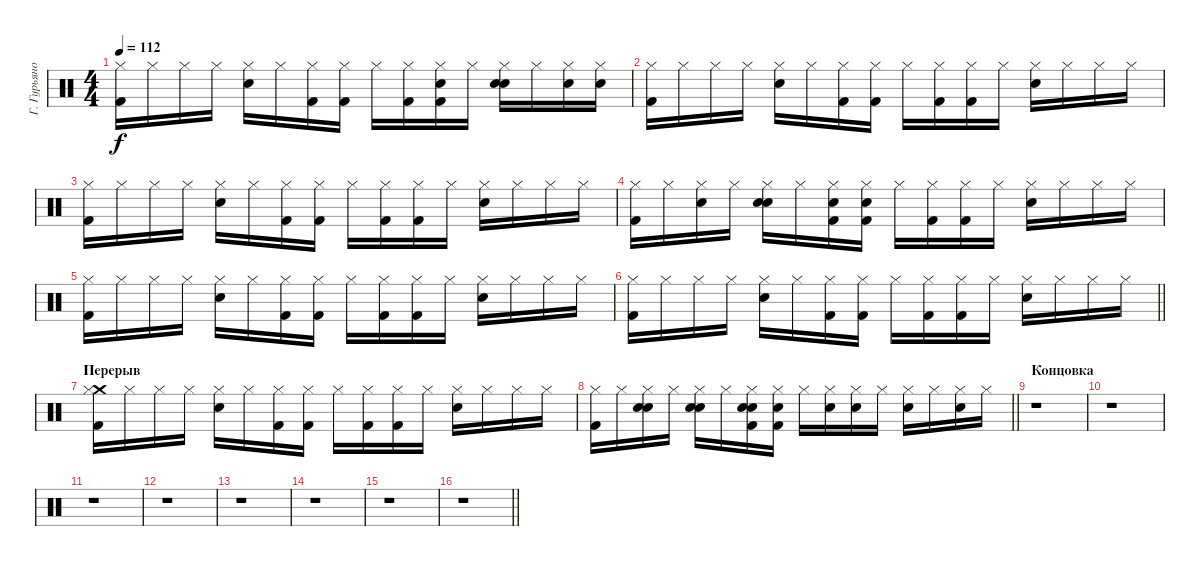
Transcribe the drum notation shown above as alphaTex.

\track ("Г. Гурьянов" "Г. Гурьяно") {instrument percussion}
\staff {score}
\articulation defaults
\ts (4 4)
\tempo 112
\clef neutral
\ks c
("Kick (hit) 2" "Hi-Hat (closed)").16{dy f} "Hi-Hat (closed)".16 "Hi-Hat (closed)".16 "Hi-Hat (closed)".16 ("Snare (hit) 2" "Hi-Hat (closed)").16 "Hi-Hat (closed)".16 ("Kick (hit) 2" "Hi-Hat (closed)").16 ("Kick (hit) 2" "Hi-Hat (closed)").16 "Hi-Hat (closed)".16 ("Kick (hit) 2" "Hi-Hat (closed)").16 ("Kick (hit) 2" "Hand Clap (hit)" "Hi-Hat (closed)").16 "Hi-Hat (closed)".16 ("Snare (hit) 2" "Hand Clap (hit)" "Hi-Hat (closed)").16 "Hi-Hat (closed)".16 ("Hand Clap (hit)" "Hi-Hat (closed)").16 ("Hand Clap (hit)" "Hi-Hat (closed)").16 |
("Kick (hit) 2" "Hi-Hat (closed)").16 "Hi-Hat (closed)".16 "Hi-Hat (closed)".16 "Hi-Hat (closed)".16 ("Snare (hit) 2" "Hi-Hat (closed)").16 "Hi-Hat (closed)".16 ("Kick (hit) 2" "Hi-Hat (closed)").16 ("Kick (hit) 2" "Hi-Hat (closed)").16 "Hi-Hat (closed)".16 ("Kick (hit) 2" "Hi-Hat (closed)").16 ("Kick (hit) 2" "Hi-Hat (closed)").16 "Hi-Hat (closed)".16 ("Snare (hit) 2" "Hi-Hat (closed)").16 "Hi-Hat (closed)".16 "Hi-Hat (closed)".16 "Hi-Hat (closed)".16 |
("Kick (hit) 2" "Hi-Hat (closed)").16 "Hi-Hat (closed)".16 "Hi-Hat (closed)".16 "Hi-Hat (closed)".16 ("Snare (hit) 2" "Hi-Hat (closed)").16 "Hi-Hat (closed)".16 ("Kick (hit) 2" "Hi-Hat (closed)").16 ("Kick (hit) 2" "Hi-Hat (closed)").16 "Hi-Hat (closed)".16 ("Kick (hit) 2" "Hi-Hat (closed)").16 ("Kick (hit) 2" "Hi-Hat (closed)").16 "Hi-Hat (closed)".16 ("Snare (hit) 2" "Hi-Hat (closed)").16 "Hi-Hat (closed)".16 "Hi-Hat (closed)".16 "Hi-Hat (closed)".16 |
("Kick (hit) 2" "Hi-Hat (closed)").16 "Hi-Hat (closed)".16 ("Hand Clap (hit)" "Hi-Hat (closed)").16 "Hi-Hat (closed)".16 ("Snare (hit) 2" "Hand Clap (hit)" "Hi-Hat (closed)").16 "Hi-Hat (closed)".16 ("Kick (hit) 2" "Hand Clap (hit)" "Hi-Hat (closed)").16 ("Kick (hit) 2" "Hand Clap (hit)" "Hi-Hat (closed)").16 "Hi-Hat (closed)".16 ("Kick (hit) 2" "Hi-Hat (closed)").16 ("Kick (hit) 2" "Hi-Hat (closed)").16 "Hi-Hat (closed)".16 ("Snare (hit) 2" "Hi-Hat (closed)").16 "Hi-Hat (closed)".16 "Hi-Hat (closed)".16 "Hi-Hat (closed)".16 |
("Kick (hit) 2" "Hi-Hat (closed)").16 "Hi-Hat (closed)".16 "Hi-Hat (closed)".16 "Hi-Hat (closed)".16 ("Snare (hit) 2" "Hi-Hat (closed)").16 "Hi-Hat (closed)".16 ("Kick (hit) 2" "Hi-Hat (closed)").16 ("Kick (hit) 2" "Hi-Hat (closed)").16 "Hi-Hat (closed)".16 ("Kick (hit) 2" "Hi-Hat (closed)").16 ("Kick (hit) 2" "Hi-Hat (closed)").16 "Hi-Hat (closed)".16 ("Snare (hit) 2" "Hi-Hat (closed)").16 "Hi-Hat (closed)".16 "Hi-Hat (closed)".16 "Hi-Hat (closed)".16 |
\barLineRight lightlight
("Kick (hit) 2" "Hi-Hat (closed)").16 "Hi-Hat (closed)".16 "Hi-Hat (closed)".16 "Hi-Hat (closed)".16 ("Snare (hit) 2" "Hi-Hat (closed)").16 "Hi-Hat (closed)".16 ("Kick (hit) 2" "Hi-Hat (closed)").16 ("Kick (hit) 2" "Hi-Hat (closed)").16 "Hi-Hat (closed)".16 ("Kick (hit) 2" "Hi-Hat (closed)").16 ("Kick (hit) 2" "Hi-Hat (closed)").16 "Hi-Hat (closed)".16 ("Snare (hit) 2" "Hi-Hat (closed)").16 "Hi-Hat (closed)".16 "Hi-Hat (closed)".16 "Hi-Hat (closed)".16 |
\section ("" "Перерыв")
("Kick (hit) 2" "Crash medium (hit)" "Hi-Hat (closed)").16 "Hi-Hat (closed)".16 "Hi-Hat (closed)".16 "Hi-Hat (closed)".16 ("Snare (hit) 2" "Hi-Hat (closed)").16 "Hi-Hat (closed)".16 ("Kick (hit) 2" "Hi-Hat (closed)").16 ("Kick (hit) 2" "Hi-Hat (closed)").16 "Hi-Hat (closed)".16 ("Kick (hit) 2" "Hi-Hat (closed)").16 ("Kick (hit) 2" "Hi-Hat (closed)").16 "Hi-Hat (closed)".16 ("Snare (hit) 2" "Hi-Hat (closed)").16 "Hi-Hat (closed)".16 "Hi-Hat (closed)".16 "Hi-Hat (closed)".16 |
\barLineRight lightlight
("Kick (hit) 2" "Hi-Hat (closed)").16 "Hi-Hat (closed)".16 ("Snare (hit) 2" "Hand Clap (hit)" "Hi-Hat (closed)").16 "Hi-Hat (closed)".16 ("Snare (hit) 2" "Hand Clap (hit)" "Hi-Hat (closed)").16 "Hi-Hat (closed)".16 ("Kick (hit) 2" "Snare (hit) 2" "Hand Clap (hit)" "Hi-Hat (closed)").16 ("Kick (hit) 2" "Hand Clap (hit)" "Hi-Hat (closed)").16 "Hi-Hat (closed)".16 ("Snare (hit) 2" "Hi-Hat (closed)").16 ("Snare (hit) 2" "Hi-Hat (closed)").16 "Hi-Hat (closed)".16 ("Snare (hit) 2" "Hi-Hat (closed)").16 "Hi-Hat (closed)".16 ("Snare (hit) 2" "Hi-Hat (closed)").16 "Hi-Hat (closed)".16 |
\section ("" "Концовка")
r.1 |
r.1 |
r.1 |
r.1 |
r.1 |
r.1 |
r.1 |
\barLineRight lightlight
r.1
